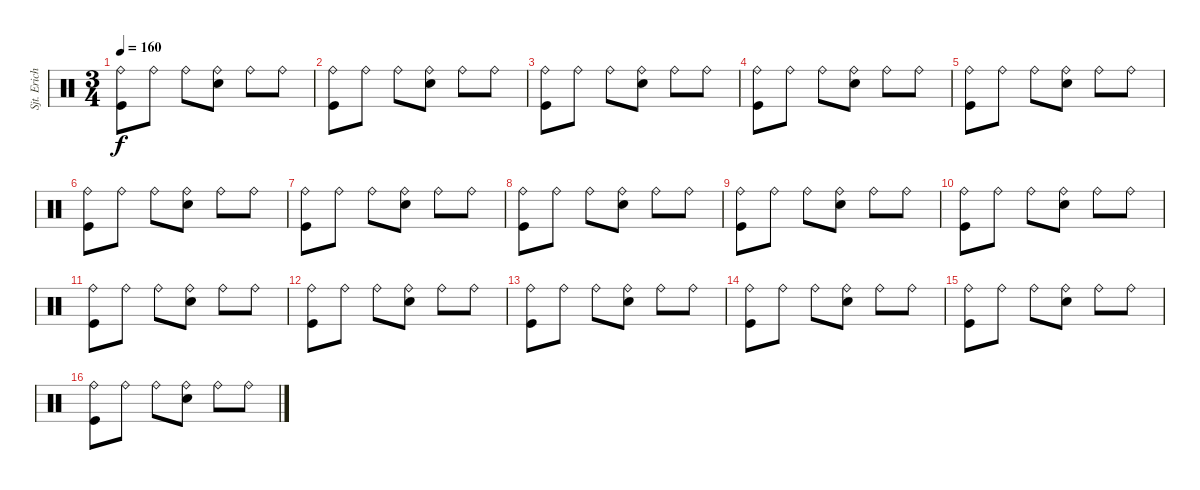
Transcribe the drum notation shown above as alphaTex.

\track ("Sjt. Erichsen" "Sjt. Erich") {instrument percussion}
\staff {score}
\articulation defaults
\ts (3 4)
\tempo 160
\clef neutral
\ks c
("Ride (bell)" "Kick (hit)").8{dy f} "Ride (bell)".8 "Ride (bell)".8 ("Ride (bell)" "Electric Snare (hit)").8 "Ride (bell)".8 "Ride (bell)".8 |
("Ride (bell)" "Kick (hit)").8 "Ride (bell)".8 "Ride (bell)".8 ("Ride (bell)" "Electric Snare (hit)").8 "Ride (bell)".8 "Ride (bell)".8 |
("Ride (bell)" "Kick (hit)").8 "Ride (bell)".8 "Ride (bell)".8 ("Ride (bell)" "Electric Snare (hit)").8 "Ride (bell)".8 "Ride (bell)".8 |
("Ride (bell)" "Kick (hit)").8{volume 4} "Ride (bell)".8 "Ride (bell)".8 ("Ride (bell)" "Electric Snare (hit)").8 "Ride (bell)".8 "Ride (bell)".8 |
("Ride (bell)" "Kick (hit)").8 "Ride (bell)".8 "Ride (bell)".8 ("Ride (bell)" "Electric Snare (hit)").8 "Ride (bell)".8 "Ride (bell)".8 |
("Ride (bell)" "Kick (hit)").8 "Ride (bell)".8 "Ride (bell)".8 ("Ride (bell)" "Electric Snare (hit)").8 "Ride (bell)".8 "Ride (bell)".8 |
("Ride (bell)" "Kick (hit)").8 "Ride (bell)".8 "Ride (bell)".8 ("Ride (bell)" "Electric Snare (hit)").8 "Ride (bell)".8 "Ride (bell)".8 |
("Ride (bell)" "Kick (hit)").8 "Ride (bell)".8 "Ride (bell)".8 ("Ride (bell)" "Electric Snare (hit)").8 "Ride (bell)".8 "Ride (bell)".8 |
("Ride (bell)" "Kick (hit)").8 "Ride (bell)".8 "Ride (bell)".8 ("Ride (bell)" "Electric Snare (hit)").8 "Ride (bell)".8 "Ride (bell)".8 |
("Ride (bell)" "Kick (hit)").8 "Ride (bell)".8 "Ride (bell)".8 ("Ride (bell)" "Electric Snare (hit)").8 "Ride (bell)".8 "Ride (bell)".8 |
("Ride (bell)" "Kick (hit)").8 "Ride (bell)".8 "Ride (bell)".8 ("Ride (bell)" "Electric Snare (hit)").8 "Ride (bell)".8 "Ride (bell)".8 |
("Ride (bell)" "Kick (hit)").8{volume 4} "Ride (bell)".8 "Ride (bell)".8 ("Ride (bell)" "Electric Snare (hit)").8 "Ride (bell)".8 "Ride (bell)".8 |
("Ride (bell)" "Kick (hit)").8 "Ride (bell)".8 "Ride (bell)".8 ("Ride (bell)" "Electric Snare (hit)").8 "Ride (bell)".8 "Ride (bell)".8 |
("Ride (bell)" "Kick (hit)").8 "Ride (bell)".8 "Ride (bell)".8 ("Ride (bell)" "Electric Snare (hit)").8 "Ride (bell)".8 "Ride (bell)".8 |
("Ride (bell)" "Kick (hit)").8 "Ride (bell)".8 "Ride (bell)".8 ("Ride (bell)" "Electric Snare (hit)").8 "Ride (bell)".8 "Ride (bell)".8 |
("Ride (bell)" "Kick (hit)").8 "Ride (bell)".8 "Ride (bell)".8 ("Ride (bell)" "Electric Snare (hit)").8 "Ride (bell)".8 "Ride (bell)".8
